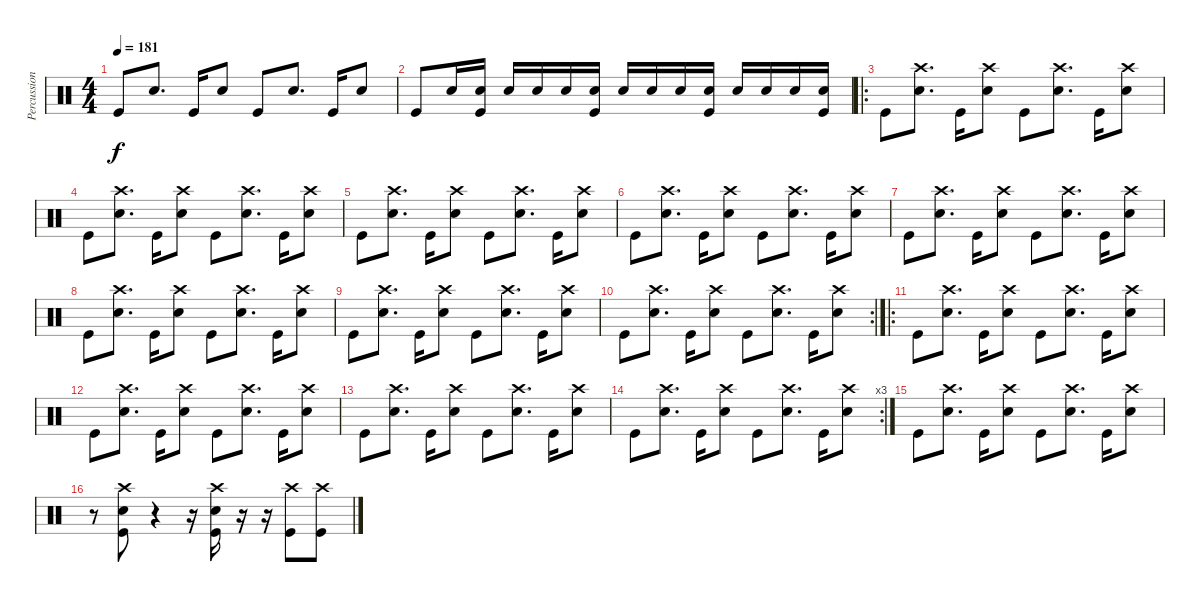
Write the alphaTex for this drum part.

\track ("Percussion" "Percussion") {instrument percussion}
\staff {score}
\articulation defaults
\ts (4 4)
\tempo 181
\clef neutral
\ks c "Kick (hit)".8{dy f} "Electric Snare (hit)".8{d} "Kick (hit)".16 "Electric Snare (hit)".8 "Kick (hit)".8 "Electric Snare (hit)".8{d} "Kick (hit)".16 "Electric Snare (hit)".8
|
"Kick (hit)".8 "Electric Snare (hit)".16 ("Electric Snare (hit)" "Kick (hit)").16 "Electric Snare (hit)".16 "Electric Snare (hit)".16 "Electric Snare (hit)".16 ("Electric Snare (hit)" "Kick (hit)").16 "Electric Snare (hit)".16 "Electric Snare (hit)".16 "Electric Snare (hit)".16 ("Electric Snare (hit)" "Kick (hit)").16 "Electric Snare (hit)".16 "Electric Snare (hit)".16 "Electric Snare (hit)".16 ("Electric Snare (hit)" "Kick (hit)").16 |
\ro "Kick (hit)".8
("Crash high (hit)" "Electric Snare (hit)").8{d} "Kick (hit)".16 ("Crash high (hit)" "Electric Snare (hit)").8 "Kick (hit)".8 ("Crash high (hit)" "Electric Snare (hit)").8{d} "Kick (hit)".16 ("Crash high (hit)" "Electric Snare (hit)").8 |
"Kick (hit)".8 ("Crash high (hit)" "Electric Snare (hit)").8{d} "Kick (hit)".16 ("Crash high (hit)" "Electric Snare (hit)").8 "Kick (hit)".8 ("Crash high (hit)" "Electric Snare (hit)").8{d} "Kick (hit)".16 ("Crash high (hit)" "Electric Snare (hit)").8 |
"Kick (hit)".8 ("Crash high (hit)" "Electric Snare (hit)").8{d} "Kick (hit)".16 ("Crash high (hit)" "Electric Snare (hit)").8 "Kick (hit)".8 ("Crash high (hit)" "Electric Snare (hit)").8{d} "Kick (hit)".16 ("Crash high (hit)" "Electric Snare (hit)").8 |
"Kick (hit)".8 ("Crash high (hit)" "Electric Snare (hit)").8{d} "Kick (hit)".16 ("Crash high (hit)" "Electric Snare (hit)").8 "Kick (hit)".8 ("Crash high (hit)" "Electric Snare (hit)").8{d} "Kick (hit)".16 ("Crash high (hit)" "Electric Snare (hit)").8 |
"Kick (hit)".8 ("Crash high (hit)" "Electric Snare (hit)").8{d} "Kick (hit)".16 ("Crash high (hit)" "Electric Snare (hit)").8 "Kick (hit)".8 ("Crash high (hit)" "Electric Snare (hit)").8{d} "Kick (hit)".16 ("Crash high (hit)" "Electric Snare (hit)").8 |
"Kick (hit)".8 ("Crash high (hit)" "Electric Snare (hit)").8{d} "Kick (hit)".16 ("Crash high (hit)" "Electric Snare (hit)").8 "Kick (hit)".8 ("Crash high (hit)" "Electric Snare (hit)").8{d} "Kick (hit)".16 ("Crash high (hit)" "Electric Snare (hit)").8 |
"Kick (hit)".8 ("Crash high (hit)" "Electric Snare (hit)").8{d} "Kick (hit)".16 ("Crash high (hit)" "Electric Snare (hit)").8 "Kick (hit)".8 ("Crash high (hit)" "Electric Snare (hit)").8{d} "Kick (hit)".16 ("Crash high (hit)" "Electric Snare (hit)").8 |
\rc 2 "Kick (hit)".8
("Crash high (hit)" "Electric Snare (hit)").8{d} "Kick (hit)".16 ("Crash high (hit)" "Electric Snare (hit)").8 "Kick (hit)".8 ("Crash high (hit)" "Electric Snare (hit)").8{d} "Kick (hit)".16 ("Crash high (hit)" "Electric Snare (hit)").8 |
\ro "Kick (hit)".8
("Crash high (hit)" "Electric Snare (hit)").8{d} "Kick (hit)".16 ("Crash high (hit)" "Electric Snare (hit)").8 "Kick (hit)".8 ("Crash high (hit)" "Electric Snare (hit)").8{d} "Kick (hit)".16 ("Crash high (hit)" "Electric Snare (hit)").8 |
"Kick (hit)".8 ("Crash high (hit)" "Electric Snare (hit)").8{d} "Kick (hit)".16 ("Crash high (hit)" "Electric Snare (hit)").8 "Kick (hit)".8 ("Crash high (hit)" "Electric Snare (hit)").8{d} "Kick (hit)".16 ("Crash high (hit)" "Electric Snare (hit)").8 |
"Kick (hit)".8 ("Crash high (hit)" "Electric Snare (hit)").8{d} "Kick (hit)".16 ("Crash high (hit)" "Electric Snare (hit)").8 "Kick (hit)".8 ("Crash high (hit)" "Electric Snare (hit)").8{d} "Kick (hit)".16 ("Crash high (hit)" "Electric Snare (hit)").8 |
\rc 3 "Kick (hit)".8
("Crash high (hit)" "Electric Snare (hit)").8{d} "Kick (hit)".16 ("Crash high (hit)" "Electric Snare (hit)").8 "Kick (hit)".8 ("Crash high (hit)" "Electric Snare (hit)").8{d} "Kick (hit)".16 ("Crash high (hit)" "Electric Snare (hit)").8 |
"Kick (hit)".8 ("Crash high (hit)" "Electric Snare (hit)").8{d} "Kick (hit)".16 ("Crash high (hit)" "Electric Snare (hit)").8 "Kick (hit)".8 ("Crash high (hit)" "Electric Snare (hit)").8{d} "Kick (hit)".16 ("Crash high (hit)" "Electric Snare (hit)").8 |
r.8 ("Crash high (hit)" "Electric Snare (hit)" "Kick (hit)").8 r.4 r.16 ("Crash high (hit)" "Electric Snare (hit)" "Kick (hit)").16 r.16 r.16 ("Crash high (hit)" "Kick (hit)").8 ("Crash high (hit)" "Kick (hit)").8
